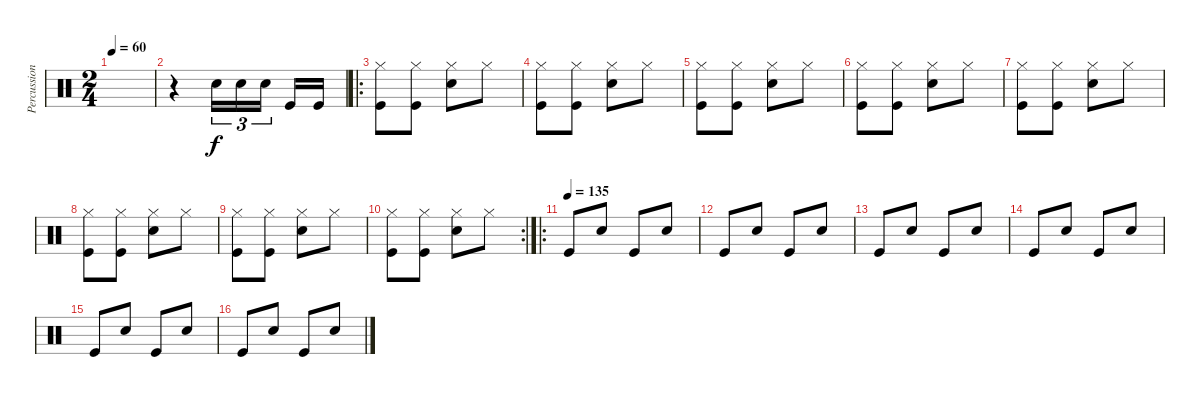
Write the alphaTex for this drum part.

\track ("Percussions" "Percussion") {instrument percussion}
\staff {score}
\articulation defaults
\ts (2 4)
\tempo 60
\clef neutral
\ks c
|
r.4 "Electric Snare (hit)".16{tu (3 2)} "Electric Snare (hit)".16{tu (3 2)} "Electric Snare (hit)".16{tu (3 2)} "Kick (hit)".16 "Kick (hit)".16 |
\ro
("Hi-Hat (closed)" "Kick (hit)").8 ("Hi-Hat (closed)" "Kick (hit)").8 ("Hi-Hat (closed)" "Electric Snare (hit)").8 "Hi-Hat (closed)".8 |
("Hi-Hat (closed)" "Kick (hit)").8 ("Hi-Hat (closed)" "Kick (hit)").8 ("Hi-Hat (closed)" "Electric Snare (hit)").8 "Hi-Hat (closed)".8 |
("Hi-Hat (closed)" "Kick (hit)").8 ("Hi-Hat (closed)" "Kick (hit)").8 ("Hi-Hat (closed)" "Electric Snare (hit)").8 "Hi-Hat (closed)".8 |
("Hi-Hat (closed)" "Kick (hit)").8 ("Hi-Hat (closed)" "Kick (hit)").8 ("Hi-Hat (closed)" "Electric Snare (hit)").8 "Hi-Hat (closed)".8 |
("Hi-Hat (closed)" "Kick (hit)").8 ("Hi-Hat (closed)" "Kick (hit)").8 ("Hi-Hat (closed)" "Electric Snare (hit)").8 "Hi-Hat (closed)".8 |
("Hi-Hat (closed)" "Kick (hit)").8 ("Hi-Hat (closed)" "Kick (hit)").8 ("Hi-Hat (closed)" "Electric Snare (hit)").8 "Hi-Hat (closed)".8 |
("Hi-Hat (closed)" "Kick (hit)").8 ("Hi-Hat (closed)" "Kick (hit)").8 ("Hi-Hat (closed)" "Electric Snare (hit)").8 "Hi-Hat (closed)".8 |
\rc 2
("Hi-Hat (closed)" "Kick (hit)").8 ("Hi-Hat (closed)" "Kick (hit)").8 ("Hi-Hat (closed)" "Electric Snare (hit)").8 "Hi-Hat (closed)".8 |
\ro
\tempo (135)
"Kick (hit)".8 "Electric Snare (hit)".8 "Kick (hit)".8 "Electric Snare (hit)".8 |
"Kick (hit)".8 "Electric Snare (hit)".8 "Kick (hit)".8 "Electric Snare (hit)".8 |
"Kick (hit)".8 "Electric Snare (hit)".8 "Kick (hit)".8 "Electric Snare (hit)".8 |
"Kick (hit)".8 "Electric Snare (hit)".8 "Kick (hit)".8 "Electric Snare (hit)".8 |
"Kick (hit)".8 "Electric Snare (hit)".8 "Kick (hit)".8 "Electric Snare (hit)".8 |
"Kick (hit)".8 "Electric Snare (hit)".8 "Kick (hit)".8 "Electric Snare (hit)".8
